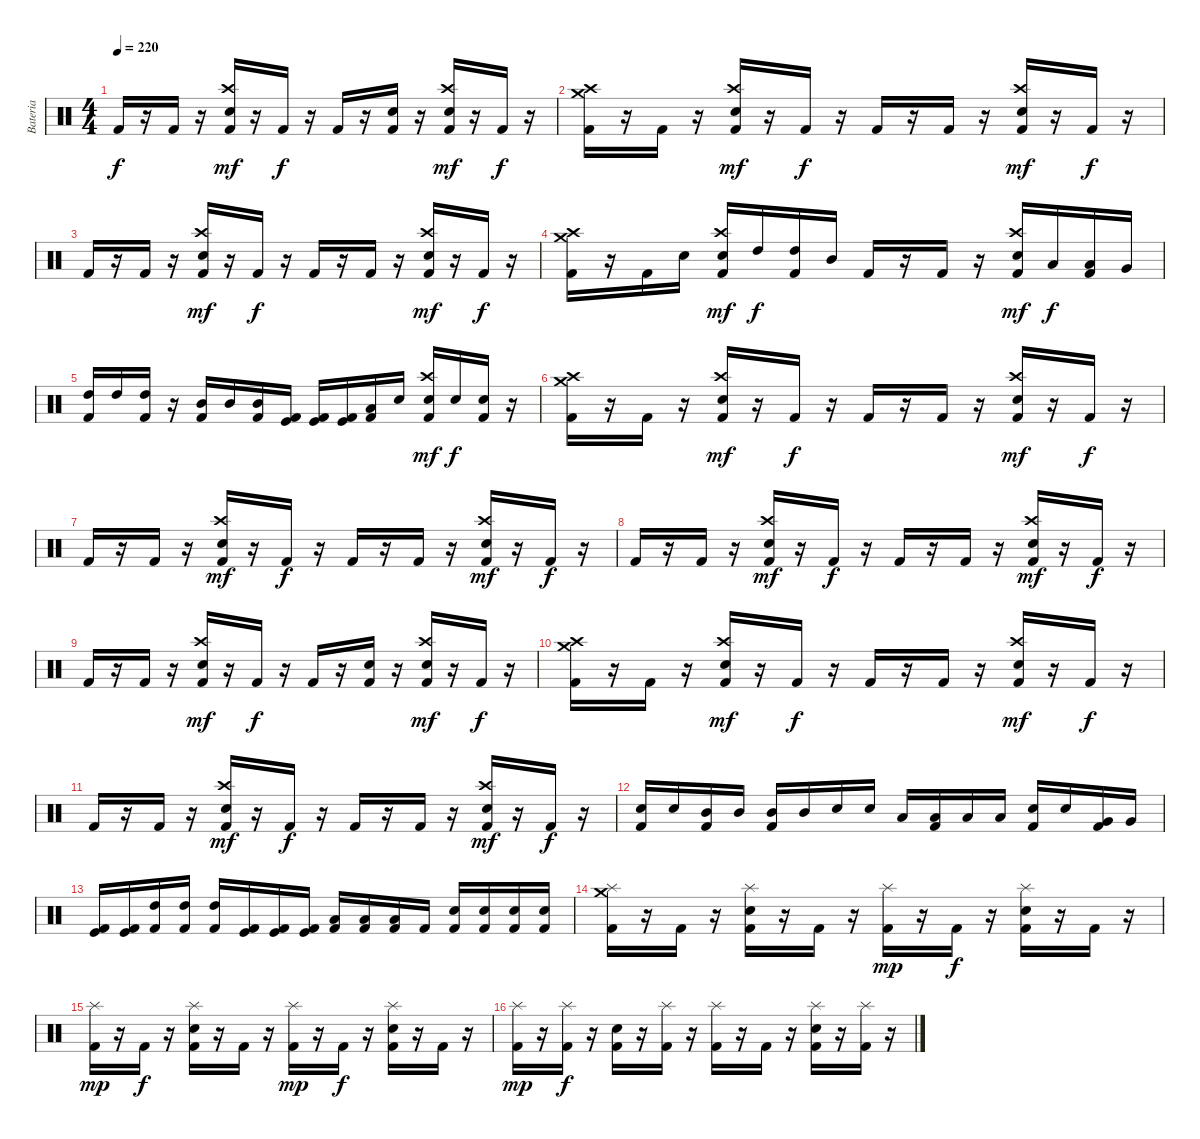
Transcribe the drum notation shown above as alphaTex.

\track ("Bateria" "Bateria") {instrument percussion}
\staff {score}
\articulation defaults
\ts (4 4)
\tempo 220
\clef neutral
\ks c "Kick (hit) 2".16{dy f}
r.16 "Kick (hit) 2".16 r.16 ("Crash high (hit)" "Electric Snare (hit)" "Kick (hit) 2").16{dy mf} r.16 "Kick (hit) 2".16{dy f} r.16 "Kick (hit) 2".16 r.16 ("Electric Snare (hit)" "Kick (hit) 2").16 r.16 ("Crash high (hit)" "Electric Snare (hit)" "Kick (hit) 2").16{dy mf} r.16 "Kick (hit) 2".16{dy f} r.16 |
("Crash medium (hit)" "Crash high (hit)" "Kick (hit) 2").16 r.16 "Kick (hit) 2".16 r.16 ("Crash high (hit)" "Electric Snare (hit)" "Kick (hit) 2").16{dy mf} r.16 "Kick (hit) 2".16{dy f} r.16 "Kick (hit) 2".16 r.16 "Kick (hit) 2".16 r.16 ("Crash high (hit)" "Electric Snare (hit)" "Kick (hit) 2").16{dy mf} r.16 "Kick (hit) 2".16{dy f} r.16 |
"Kick (hit) 2".16 r.16 "Kick (hit) 2".16 r.16 ("Crash high (hit)" "Electric Snare (hit)" "Kick (hit) 2").16{dy mf} r.16 "Kick (hit) 2".16{dy f} r.16 "Kick (hit) 2".16 r.16 "Kick (hit) 2".16 r.16 ("Crash high (hit)" "Electric Snare (hit)" "Kick (hit) 2").16{dy mf} r.16 "Kick (hit) 2".16{dy f} r.16 |
("Crash medium (hit)" "Crash high (hit)" "Kick (hit) 2").16 r.16 "Kick (hit) 2".16 "Electric Snare (hit)".16 ("Crash high (hit)" "Electric Snare (hit)" "Kick (hit) 2").16{dy mf} "High Tom (hit)".16{dy f} ("High Tom (hit)" "Kick (hit) 2").16 "Mid Tom (hit)".16 "Kick (hit) 2".16 r.16 "Kick (hit) 2".16 r.16 ("Crash high (hit)" "Electric Snare (hit)" "Kick (hit) 2").16{dy mf} "Low Tom (hit)".16{dy f} ("Low Tom (hit)" "Kick (hit) 2").16 "Very Low Tom (hit)".16 |
("High Tom (hit)" "Kick (hit) 2").16 "High Tom (hit)".16 ("High Tom (hit)" "Kick (hit) 2").16 r.16 ("Mid Tom (hit)" "Kick (hit) 2").16 "Mid Tom (hit)".16 ("Mid Tom (hit)" "Kick (hit) 2").16 ("Kick (hit)" "Kick (hit) 2").16 ("Kick (hit)" "Kick (hit) 2").16 ("Kick (hit)" "Kick (hit) 2").16 ("Low Tom (hit)" "Kick (hit) 2").16 "Electric Snare (hit)".16 ("Crash high (hit)" "Electric Snare (hit)" "Kick (hit) 2").16{dy mf} "Electric Snare (hit)".16{dy f} ("Electric Snare (hit)" "Kick (hit) 2").16 r.16 |
("Crash medium (hit)" "Crash high (hit)" "Kick (hit) 2").16 r.16 "Kick (hit) 2".16 r.16 ("Crash high (hit)" "Electric Snare (hit)" "Kick (hit) 2").16{dy mf} r.16 "Kick (hit) 2".16{dy f} r.16 "Kick (hit) 2".16 r.16 "Kick (hit) 2".16 r.16 ("Crash high (hit)" "Electric Snare (hit)" "Kick (hit) 2").16{dy mf} r.16 "Kick (hit) 2".16{dy f} r.16 |
"Kick (hit) 2".16 r.16 "Kick (hit) 2".16 r.16 ("Crash high (hit)" "Electric Snare (hit)" "Kick (hit) 2").16{dy mf} r.16 "Kick (hit) 2".16{dy f} r.16 "Kick (hit) 2".16 r.16 "Kick (hit) 2".16 r.16 ("Crash high (hit)" "Electric Snare (hit)" "Kick (hit) 2").16{dy mf} r.16 "Kick (hit) 2".16{dy f} r.16 |
"Kick (hit) 2".16 r.16 "Kick (hit) 2".16 r.16 ("Crash high (hit)" "Electric Snare (hit)" "Kick (hit) 2").16{dy mf} r.16 "Kick (hit) 2".16{dy f} r.16 "Kick (hit) 2".16 r.16 "Kick (hit) 2".16 r.16 ("Crash high (hit)" "Electric Snare (hit)" "Kick (hit) 2").16{dy mf} r.16 "Kick (hit) 2".16{dy f} r.16 |
"Kick (hit) 2".16 r.16 "Kick (hit) 2".16 r.16 ("Crash high (hit)" "Electric Snare (hit)" "Kick (hit) 2").16{dy mf} r.16 "Kick (hit) 2".16{dy f} r.16 "Kick (hit) 2".16 r.16 ("Electric Snare (hit)" "Kick (hit) 2").16 r.16 ("Crash high (hit)" "Electric Snare (hit)" "Kick (hit) 2").16{dy mf} r.16 "Kick (hit) 2".16{dy f} r.16 |
("Crash medium (hit)" "Crash high (hit)" "Kick (hit) 2").16 r.16 "Kick (hit) 2".16 r.16 ("Crash high (hit)" "Electric Snare (hit)" "Kick (hit) 2").16{dy mf} r.16 "Kick (hit) 2".16{dy f} r.16 "Kick (hit) 2".16 r.16 "Kick (hit) 2".16 r.16 ("Crash high (hit)" "Electric Snare (hit)" "Kick (hit) 2").16{dy mf} r.16 "Kick (hit) 2".16{dy f} r.16 |
"Kick (hit) 2".16 r.16 "Kick (hit) 2".16 r.16 ("Crash high (hit)" "Electric Snare (hit)" "Kick (hit) 2").16{dy mf} r.16 "Kick (hit) 2".16{dy f} r.16 "Kick (hit) 2".16 r.16 "Kick (hit) 2".16 r.16 ("Crash high (hit)" "Electric Snare (hit)" "Kick (hit) 2").16{dy mf} r.16 "Kick (hit) 2".16{dy f} r.16 |
("Electric Snare (hit)" "Kick (hit) 2").16 "Electric Snare (hit)".16 ("Mid Tom (hit)" "Kick (hit) 2").16 "Mid Tom (hit)".16 ("Mid Tom (hit)" "Kick (hit) 2").16 "Mid Tom (hit)".16 "Electric Snare (hit)".16 "Electric Snare (hit)".16 "Low Tom (hit)".16 ("Low Tom (hit)" "Kick (hit) 2").16 "Low Tom (hit)".16 "Low Tom (hit)".16 ("Electric Snare (hit)" "Kick (hit) 2").16 "Electric Snare (hit)".16 ("Very Low Tom (hit)" "Kick (hit) 2").16 "Very Low Tom (hit)".16 |
("Kick (hit)" "Kick (hit) 2").16 ("Kick (hit)" "Kick (hit) 2").16 ("High Tom (hit)" "Kick (hit) 2").16 ("High Tom (hit)" "Kick (hit) 2").16 ("High Tom (hit)" "Kick (hit) 2").16 ("Kick (hit)" "Kick (hit) 2").16 ("Kick (hit)" "Kick (hit) 2").16 ("Kick (hit)" "Kick (hit) 2").16 ("Low Tom (hit)" "Kick (hit) 2").16 ("Low Tom (hit)" "Kick (hit) 2").16 ("Low Tom (hit)" "Kick (hit) 2").16 "Kick (hit) 2".16 ("Electric Snare (hit)" "Kick (hit) 2").16 ("Electric Snare (hit)" "Kick (hit) 2").16 ("Electric Snare (hit)" "Kick (hit) 2").16 ("Electric Snare (hit)" "Kick (hit) 2").16 |
("Splash (hit)" "Crash medium (hit)" "Kick (hit) 2").16 r.16 "Kick (hit) 2".16 r.16 ("Splash (hit)" "Electric Snare (hit)" "Kick (hit) 2").16 r.16 "Kick (hit) 2".16 r.16 ("Splash (hit)" "Kick (hit) 2").16{dy mp} r.16 "Kick (hit) 2".16{dy f} r.16 ("Splash (hit)" "Electric Snare (hit)" "Kick (hit) 2").16 r.16 "Kick (hit) 2".16 r.16 |
("Splash (hit)" "Kick (hit) 2").16{dy mp} r.16 "Kick (hit) 2".16{dy f} r.16 ("Splash (hit)" "Electric Snare (hit)" "Kick (hit) 2").16 r.16 "Kick (hit) 2".16 r.16 ("Splash (hit)" "Kick (hit) 2").16{dy mp} r.16 "Kick (hit) 2".16{dy f} r.16 ("Splash (hit)" "Electric Snare (hit)" "Kick (hit) 2").16 r.16 "Kick (hit) 2".16 r.16 |
("Splash (hit)" "Kick (hit) 2").16{dy mp} r.16 ("Splash (hit)" "Kick (hit) 2").16{dy f} r.16 ("Electric Snare (hit)" "Kick (hit) 2").16 r.16 ("Splash (hit)" "Kick (hit) 2").16 r.16 ("Splash (hit)" "Kick (hit) 2").16 r.16 "Kick (hit) 2".16 r.16 ("Splash (hit)" "Electric Snare (hit)" "Kick (hit) 2").16 r.16 ("Splash (hit)" "Kick (hit) 2").16 r.16
